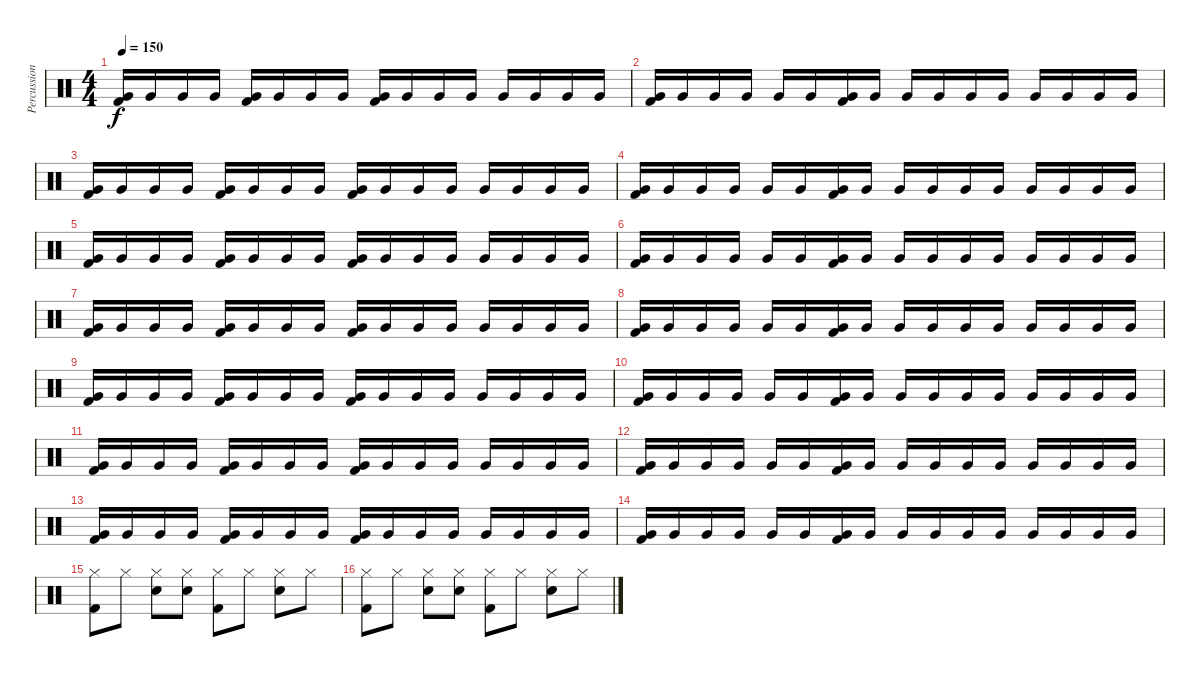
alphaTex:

\track ("Percussion" "Percussion") {instrument percussion}
\staff {score}
\articulation defaults
\ts (4 4)
\tempo 150
\clef neutral
\ks c
("Very Low Tom (hit)" "Kick (hit) 2").16{dy f} "Very Low Tom (hit)".16 "Very Low Tom (hit)".16 "Very Low Tom (hit)".16 ("Very Low Tom (hit)" "Kick (hit) 2").16 "Very Low Tom (hit)".16 "Very Low Tom (hit)".16 "Very Low Tom (hit)".16 ("Very Low Tom (hit)" "Kick (hit) 2").16 "Very Low Tom (hit)".16 "Very Low Tom (hit)".16 "Very Low Tom (hit)".16 "Very Low Tom (hit)".16 "Very Low Tom (hit)".16 "Very Low Tom (hit)".16 "Very Low Tom (hit)".16 |
("Very Low Tom (hit)" "Kick (hit) 2").16 "Very Low Tom (hit)".16 "Very Low Tom (hit)".16 "Very Low Tom (hit)".16 "Very Low Tom (hit)".16 "Very Low Tom (hit)".16 ("Very Low Tom (hit)" "Kick (hit) 2").16 "Very Low Tom (hit)".16 "Very Low Tom (hit)".16 "Very Low Tom (hit)".16 "Very Low Tom (hit)".16 "Very Low Tom (hit)".16 "Very Low Tom (hit)".16 "Very Low Tom (hit)".16 "Very Low Tom (hit)".16 "Very Low Tom (hit)".16 |
("Very Low Tom (hit)" "Kick (hit) 2").16 "Very Low Tom (hit)".16 "Very Low Tom (hit)".16 "Very Low Tom (hit)".16 ("Very Low Tom (hit)" "Kick (hit) 2").16 "Very Low Tom (hit)".16 "Very Low Tom (hit)".16 "Very Low Tom (hit)".16 ("Very Low Tom (hit)" "Kick (hit) 2").16 "Very Low Tom (hit)".16 "Very Low Tom (hit)".16 "Very Low Tom (hit)".16 "Very Low Tom (hit)".16 "Very Low Tom (hit)".16 "Very Low Tom (hit)".16 "Very Low Tom (hit)".16 |
("Very Low Tom (hit)" "Kick (hit) 2").16 "Very Low Tom (hit)".16 "Very Low Tom (hit)".16 "Very Low Tom (hit)".16 "Very Low Tom (hit)".16 "Very Low Tom (hit)".16 ("Very Low Tom (hit)" "Kick (hit) 2").16 "Very Low Tom (hit)".16 "Very Low Tom (hit)".16 "Very Low Tom (hit)".16 "Very Low Tom (hit)".16 "Very Low Tom (hit)".16 "Very Low Tom (hit)".16 "Very Low Tom (hit)".16 "Very Low Tom (hit)".16 "Very Low Tom (hit)".16 |
("Very Low Tom (hit)" "Kick (hit) 2").16 "Very Low Tom (hit)".16 "Very Low Tom (hit)".16 "Very Low Tom (hit)".16 ("Very Low Tom (hit)" "Kick (hit) 2").16 "Very Low Tom (hit)".16 "Very Low Tom (hit)".16 "Very Low Tom (hit)".16 ("Very Low Tom (hit)" "Kick (hit) 2").16 "Very Low Tom (hit)".16 "Very Low Tom (hit)".16 "Very Low Tom (hit)".16 "Very Low Tom (hit)".16 "Very Low Tom (hit)".16 "Very Low Tom (hit)".16 "Very Low Tom (hit)".16 |
("Very Low Tom (hit)" "Kick (hit) 2").16 "Very Low Tom (hit)".16 "Very Low Tom (hit)".16 "Very Low Tom (hit)".16 "Very Low Tom (hit)".16 "Very Low Tom (hit)".16 ("Very Low Tom (hit)" "Kick (hit) 2").16 "Very Low Tom (hit)".16 "Very Low Tom (hit)".16 "Very Low Tom (hit)".16 "Very Low Tom (hit)".16 "Very Low Tom (hit)".16 "Very Low Tom (hit)".16 "Very Low Tom (hit)".16 "Very Low Tom (hit)".16 "Very Low Tom (hit)".16 |
("Very Low Tom (hit)" "Kick (hit) 2").16 "Very Low Tom (hit)".16 "Very Low Tom (hit)".16 "Very Low Tom (hit)".16 ("Very Low Tom (hit)" "Kick (hit) 2").16 "Very Low Tom (hit)".16 "Very Low Tom (hit)".16 "Very Low Tom (hit)".16 ("Very Low Tom (hit)" "Kick (hit) 2").16 "Very Low Tom (hit)".16 "Very Low Tom (hit)".16 "Very Low Tom (hit)".16 "Very Low Tom (hit)".16 "Very Low Tom (hit)".16 "Very Low Tom (hit)".16 "Very Low Tom (hit)".16 |
("Very Low Tom (hit)" "Kick (hit) 2").16 "Very Low Tom (hit)".16 "Very Low Tom (hit)".16 "Very Low Tom (hit)".16 "Very Low Tom (hit)".16 "Very Low Tom (hit)".16 ("Very Low Tom (hit)" "Kick (hit) 2").16 "Very Low Tom (hit)".16 "Very Low Tom (hit)".16 "Very Low Tom (hit)".16 "Very Low Tom (hit)".16 "Very Low Tom (hit)".16 "Very Low Tom (hit)".16 "Very Low Tom (hit)".16 "Very Low Tom (hit)".16 "Very Low Tom (hit)".16 |
("Very Low Tom (hit)" "Kick (hit) 2").16 "Very Low Tom (hit)".16 "Very Low Tom (hit)".16 "Very Low Tom (hit)".16 ("Very Low Tom (hit)" "Kick (hit) 2").16 "Very Low Tom (hit)".16 "Very Low Tom (hit)".16 "Very Low Tom (hit)".16 ("Very Low Tom (hit)" "Kick (hit) 2").16 "Very Low Tom (hit)".16 "Very Low Tom (hit)".16 "Very Low Tom (hit)".16 "Very Low Tom (hit)".16 "Very Low Tom (hit)".16 "Very Low Tom (hit)".16 "Very Low Tom (hit)".16 |
("Very Low Tom (hit)" "Kick (hit) 2").16 "Very Low Tom (hit)".16 "Very Low Tom (hit)".16 "Very Low Tom (hit)".16 "Very Low Tom (hit)".16 "Very Low Tom (hit)".16 ("Very Low Tom (hit)" "Kick (hit) 2").16 "Very Low Tom (hit)".16 "Very Low Tom (hit)".16 "Very Low Tom (hit)".16 "Very Low Tom (hit)".16 "Very Low Tom (hit)".16 "Very Low Tom (hit)".16 "Very Low Tom (hit)".16 "Very Low Tom (hit)".16 "Very Low Tom (hit)".16 |
("Very Low Tom (hit)" "Kick (hit) 2").16 "Very Low Tom (hit)".16 "Very Low Tom (hit)".16 "Very Low Tom (hit)".16 ("Very Low Tom (hit)" "Kick (hit) 2").16 "Very Low Tom (hit)".16 "Very Low Tom (hit)".16 "Very Low Tom (hit)".16 ("Very Low Tom (hit)" "Kick (hit) 2").16 "Very Low Tom (hit)".16 "Very Low Tom (hit)".16 "Very Low Tom (hit)".16 "Very Low Tom (hit)".16 "Very Low Tom (hit)".16 "Very Low Tom (hit)".16 "Very Low Tom (hit)".16 |
("Very Low Tom (hit)" "Kick (hit) 2").16 "Very Low Tom (hit)".16 "Very Low Tom (hit)".16 "Very Low Tom (hit)".16 "Very Low Tom (hit)".16 "Very Low Tom (hit)".16 ("Very Low Tom (hit)" "Kick (hit) 2").16 "Very Low Tom (hit)".16 "Very Low Tom (hit)".16 "Very Low Tom (hit)".16 "Very Low Tom (hit)".16 "Very Low Tom (hit)".16 "Very Low Tom (hit)".16 "Very Low Tom (hit)".16 "Very Low Tom (hit)".16 "Very Low Tom (hit)".16 |
("Very Low Tom (hit)" "Kick (hit) 2").16 "Very Low Tom (hit)".16 "Very Low Tom (hit)".16 "Very Low Tom (hit)".16 ("Very Low Tom (hit)" "Kick (hit) 2").16 "Very Low Tom (hit)".16 "Very Low Tom (hit)".16 "Very Low Tom (hit)".16 ("Very Low Tom (hit)" "Kick (hit) 2").16 "Very Low Tom (hit)".16 "Very Low Tom (hit)".16 "Very Low Tom (hit)".16 "Very Low Tom (hit)".16 "Very Low Tom (hit)".16 "Very Low Tom (hit)".16 "Very Low Tom (hit)".16 |
("Very Low Tom (hit)" "Kick (hit) 2").16 "Very Low Tom (hit)".16 "Very Low Tom (hit)".16 "Very Low Tom (hit)".16 "Very Low Tom (hit)".16 "Very Low Tom (hit)".16 ("Very Low Tom (hit)" "Kick (hit) 2").16 "Very Low Tom (hit)".16 "Very Low Tom (hit)".16 "Very Low Tom (hit)".16 "Very Low Tom (hit)".16 "Very Low Tom (hit)".16 "Very Low Tom (hit)".16 "Very Low Tom (hit)".16 "Very Low Tom (hit)".16 "Very Low Tom (hit)".16 |
("Hi-Hat (closed)" "Kick (hit) 2").8 "Hi-Hat (closed)".8 ("Hi-Hat (closed)" "Electric Snare (hit)").8 ("Hi-Hat (closed)" "Electric Snare (hit)").8 ("Hi-Hat (closed)" "Kick (hit) 2").8 "Hi-Hat (closed)".8 ("Hi-Hat (closed)" "Electric Snare (hit)").8 "Hi-Hat (closed)".8 |
("Hi-Hat (closed)" "Kick (hit) 2").8 "Hi-Hat (closed)".8 ("Hi-Hat (closed)" "Electric Snare (hit)").8 ("Hi-Hat (closed)" "Electric Snare (hit)").8 ("Hi-Hat (closed)" "Kick (hit) 2").8 "Hi-Hat (closed)".8 ("Hi-Hat (closed)" "Electric Snare (hit)").8 "Hi-Hat (closed)".8
